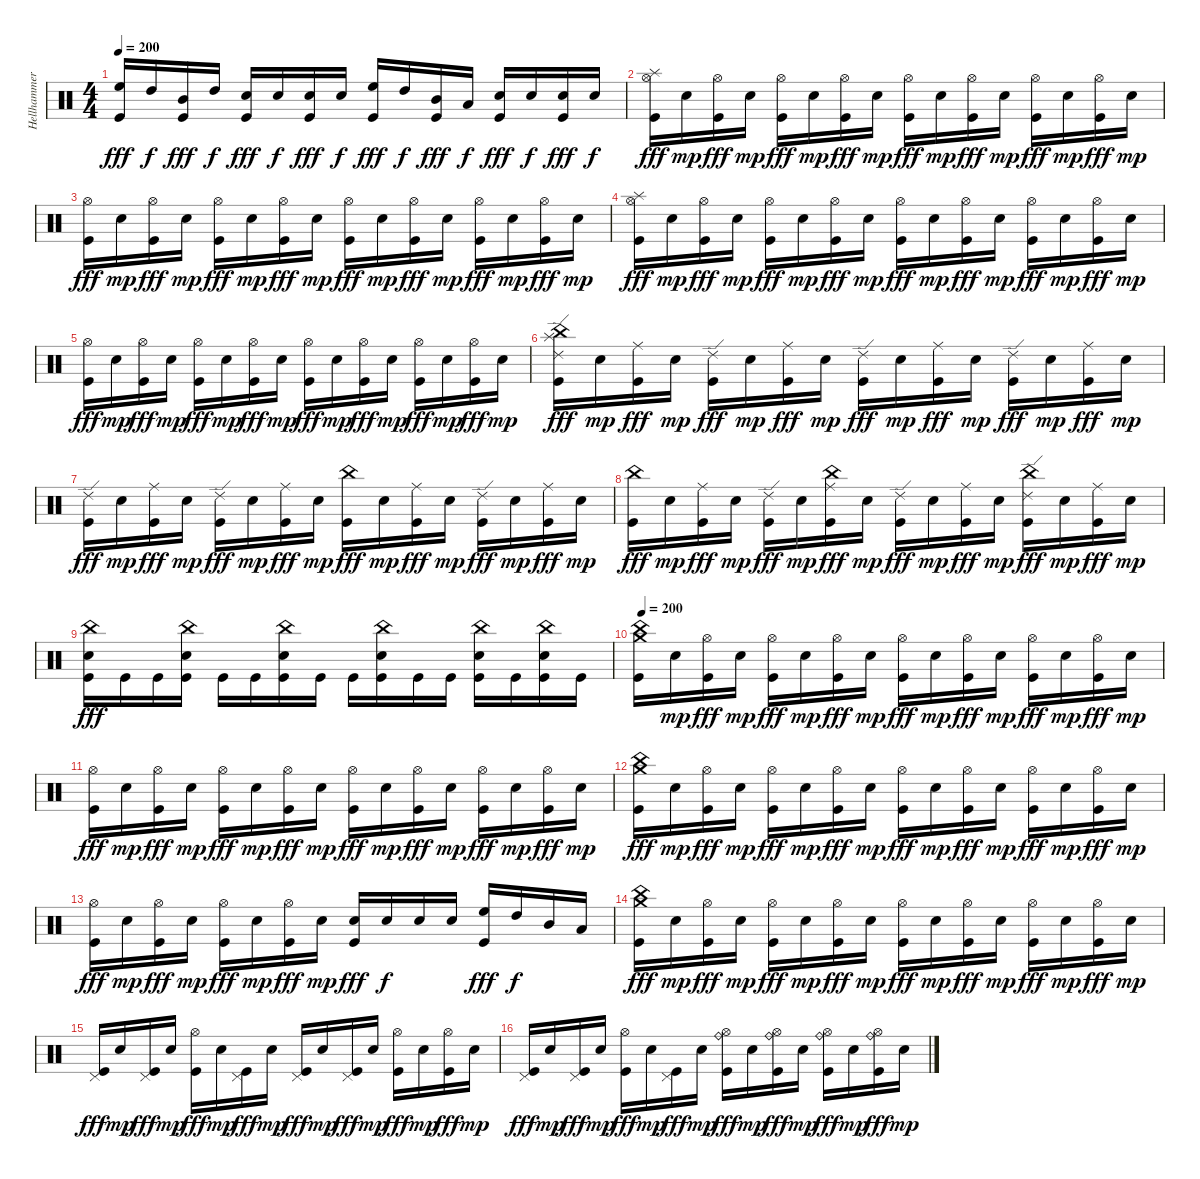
\track ("Hellhammer" "Hellhammer") {instrument percussion}
\staff {score}
\articulation defaults
\ts (4 4)
\tempo 200
\clef neutral
\ks c
("Kick (hit)" "High Floor Tom (hit)").16{dy fff} "High Tom (hit)".16{dy f} ("Kick (hit)" "Mid Tom (hit)").16{dy fff} "High Tom (hit)".16{dy f} ("Kick (hit)" "Electric Snare (hit)").16{dy fff} "Electric Snare (hit)".16{dy f} ("Kick (hit)" "Electric Snare (hit)").16{dy fff} "Electric Snare (hit)".16{dy f} ("Kick (hit)" "High Floor Tom (hit)").16{dy fff} "High Tom (hit)".16{dy f} ("Kick (hit)" "Mid Tom (hit)").16{dy fff} "Low Tom (hit)".16{dy f} ("Kick (hit)" "Electric Snare (hit)").16{dy fff} "Electric Snare (hit)".16{dy f} ("Kick (hit)" "Electric Snare (hit)").16{dy fff} "Electric Snare (hit)".16{dy f} |
("Splash (hit)" "Hi-Hat (open)" "Kick (hit)").16{dy fff} "Electric Snare (hit)".16{dy mp} ("Hi-Hat (open)" "Kick (hit)").16{dy fff} "Electric Snare (hit)".16{dy mp} ("Hi-Hat (open)" "Kick (hit)").16{dy fff} "Electric Snare (hit)".16{dy mp} ("Hi-Hat (open)" "Kick (hit)").16{dy fff} "Electric Snare (hit)".16{dy mp} ("Hi-Hat (open)" "Kick (hit)").16{dy fff} "Electric Snare (hit)".16{dy mp} ("Hi-Hat (open)" "Kick (hit)").16{dy fff} "Electric Snare (hit)".16{dy mp} ("Hi-Hat (open)" "Kick (hit)").16{dy fff} "Electric Snare (hit)".16{dy mp} ("Hi-Hat (open)" "Kick (hit)").16{dy fff} "Electric Snare (hit)".16{dy mp} |
("Hi-Hat (open)" "Kick (hit)").16{dy fff} "Electric Snare (hit)".16{dy mp} ("Hi-Hat (open)" "Kick (hit)").16{dy fff} "Electric Snare (hit)".16{dy mp} ("Hi-Hat (open)" "Kick (hit)").16{dy fff} "Electric Snare (hit)".16{dy mp} ("Hi-Hat (open)" "Kick (hit)").16{dy fff} "Electric Snare (hit)".16{dy mp} ("Hi-Hat (open)" "Kick (hit)").16{dy fff} "Electric Snare (hit)".16{dy mp} ("Hi-Hat (open)" "Kick (hit)").16{dy fff} "Electric Snare (hit)".16{dy mp} ("Hi-Hat (open)" "Kick (hit)").16{dy fff} "Electric Snare (hit)".16{dy mp} ("Hi-Hat (open)" "Kick (hit)").16{dy fff} "Electric Snare (hit)".16{dy mp} |
("Splash (hit)" "Hi-Hat (open)" "Kick (hit)").16{dy fff} "Electric Snare (hit)".16{dy mp} ("Hi-Hat (open)" "Kick (hit)").16{dy fff} "Electric Snare (hit)".16{dy mp} ("Hi-Hat (open)" "Kick (hit)").16{dy fff} "Electric Snare (hit)".16{dy mp} ("Hi-Hat (open)" "Kick (hit)").16{dy fff} "Electric Snare (hit)".16{dy mp} ("Hi-Hat (open)" "Kick (hit)").16{dy fff} "Electric Snare (hit)".16{dy mp} ("Hi-Hat (open)" "Kick (hit)").16{dy fff} "Electric Snare (hit)".16{dy mp} ("Hi-Hat (open)" "Kick (hit)").16{dy fff} "Electric Snare (hit)".16{dy mp} ("Hi-Hat (open)" "Kick (hit)").16{dy fff} "Electric Snare (hit)".16{dy mp} |
("Hi-Hat (open)" "Kick (hit)").16{dy fff} "Electric Snare (hit)".16{dy mp} ("Hi-Hat (open)" "Kick (hit)").16{dy fff} "Electric Snare (hit)".16{dy mp} ("Hi-Hat (open)" "Kick (hit)").16{dy fff} "Electric Snare (hit)".16{dy mp} ("Hi-Hat (open)" "Kick (hit)").16{dy fff} "Electric Snare (hit)".16{dy mp} ("Hi-Hat (open)" "Kick (hit)").16{dy fff} "Electric Snare (hit)".16{dy mp} ("Hi-Hat (open)" "Kick (hit)").16{dy fff} "Electric Snare (hit)".16{dy mp} ("Hi-Hat (open)" "Kick (hit)").16{dy fff} "Electric Snare (hit)".16{dy mp} ("Hi-Hat (open)" "Kick (hit)").16{dy fff} "Electric Snare (hit)".16{dy mp} |
("Splash (hit)" "China (hit)" "Ride (edge) 2" "Kick (hit)").16{dy fff} "Electric Snare (hit)".16{dy mp} ("Ride (middle)" "Kick (hit)").16{dy fff} "Electric Snare (hit)".16{dy mp} ("Ride (edge) 2" "Kick (hit)").16{dy fff} "Electric Snare (hit)".16{dy mp} ("Ride (middle)" "Kick (hit)").16{dy fff} "Electric Snare (hit)".16{dy mp} ("Ride (edge) 2" "Kick (hit)").16{dy fff} "Electric Snare (hit)".16{dy mp} ("Ride (middle)" "Kick (hit)").16{dy fff} "Electric Snare (hit)".16{dy mp} ("Ride (edge) 2" "Kick (hit)").16{dy fff} "Electric Snare (hit)".16{dy mp} ("Ride (middle)" "Kick (hit)").16{dy fff} "Electric Snare (hit)".16{dy mp} |
("Ride (edge) 2" "Kick (hit)").16{dy fff} "Electric Snare (hit)".16{dy mp} ("Ride (middle)" "Kick (hit)").16{dy fff} "Electric Snare (hit)".16{dy mp} ("Ride (edge) 2" "Kick (hit)").16{dy fff} "Electric Snare (hit)".16{dy mp} ("Ride (middle)" "Kick (hit)").16{dy fff} "Electric Snare (hit)".16{dy mp} ("China (hit)" "Kick (hit)").16{dy fff} "Electric Snare (hit)".16{dy mp} ("Ride (middle)" "Kick (hit)").16{dy fff} "Electric Snare (hit)".16{dy mp} ("Ride (edge) 2" "Kick (hit)").16{dy fff} "Electric Snare (hit)".16{dy mp} ("Ride (middle)" "Kick (hit)").16{dy fff} "Electric Snare (hit)".16{dy mp} |
("China (hit)" "Kick (hit)").16{dy fff} "Electric Snare (hit)".16{dy mp} ("Ride (middle)" "Kick (hit)").16{dy fff} "Electric Snare (hit)".16{dy mp} ("Ride (edge) 2" "Kick (hit)").16{dy fff} "Electric Snare (hit)".16{dy mp} ("China (hit)" "Ride (middle)" "Kick (hit)").16{dy fff} "Electric Snare (hit)".16{dy mp} ("Ride (edge) 2" "Kick (hit)").16{dy fff} "Electric Snare (hit)".16{dy mp} ("Ride (middle)" "Kick (hit)").16{dy fff} "Electric Snare (hit)".16{dy mp} ("China (hit)" "Ride (edge) 2" "Kick (hit)").16{dy fff} "Electric Snare (hit)".16{dy mp} ("Ride (middle)" "Kick (hit)").16{dy fff} "Electric Snare (hit)".16{dy mp} |
("China (hit)" "Electric Snare (hit)" "Kick (hit)").16{dy fff} "Kick (hit)".16 "Kick (hit)".16 ("China (hit)" "Electric Snare (hit)" "Kick (hit)").16 "Kick (hit)".16 "Kick (hit)".16 ("China (hit)" "Electric Snare (hit)" "Kick (hit)").16 "Kick (hit)".16 "Kick (hit)".16 ("China (hit)" "Electric Snare (hit)" "Kick (hit)").16 "Kick (hit)".16 "Kick (hit)".16 ("China (hit)" "Electric Snare (hit)" "Kick (hit)").16 "Kick (hit)".16 ("China (hit)" "Electric Snare (hit)" "Kick (hit)").16 "Kick (hit)".16 |
\tempo 200
("China (hit)" "Crash medium (hit)" "Kick (hit)").16 "Electric Snare (hit)".16{dy mp} ("Hi-Hat (open)" "Kick (hit)").16{dy fff} "Electric Snare (hit)".16{dy mp} ("Hi-Hat (open)" "Kick (hit)").16{dy fff} "Electric Snare (hit)".16{dy mp} ("Hi-Hat (open)" "Kick (hit)").16{dy fff} "Electric Snare (hit)".16{dy mp} ("Hi-Hat (open)" "Kick (hit)").16{dy fff} "Electric Snare (hit)".16{dy mp} ("Hi-Hat (open)" "Kick (hit)").16{dy fff} "Electric Snare (hit)".16{dy mp} ("Hi-Hat (open)" "Kick (hit)").16{dy fff} "Electric Snare (hit)".16{dy mp} ("Hi-Hat (open)" "Kick (hit)").16{dy fff} "Electric Snare (hit)".16{dy mp} |
("Hi-Hat (open)" "Kick (hit)").16{dy fff} "Electric Snare (hit)".16{dy mp} ("Hi-Hat (open)" "Kick (hit)").16{dy fff} "Electric Snare (hit)".16{dy mp} ("Hi-Hat (open)" "Kick (hit)").16{dy fff} "Electric Snare (hit)".16{dy mp} ("Hi-Hat (open)" "Kick (hit)").16{dy fff} "Electric Snare (hit)".16{dy mp} ("Hi-Hat (open)" "Kick (hit)").16{dy fff} "Electric Snare (hit)".16{dy mp} ("Hi-Hat (open)" "Kick (hit)").16{dy fff} "Electric Snare (hit)".16{dy mp} ("Hi-Hat (open)" "Kick (hit)").16{dy fff} "Electric Snare (hit)".16{dy mp} ("Hi-Hat (open)" "Kick (hit)").16{dy fff} "Electric Snare (hit)".16{dy mp} |
("China (hit)" "Crash medium (hit)" "Kick (hit)").16{dy fff} "Electric Snare (hit)".16{dy mp} ("Hi-Hat (open)" "Kick (hit)").16{dy fff} "Electric Snare (hit)".16{dy mp} ("Hi-Hat (open)" "Kick (hit)").16{dy fff} "Electric Snare (hit)".16{dy mp} ("Hi-Hat (open)" "Kick (hit)").16{dy fff} "Electric Snare (hit)".16{dy mp} ("Hi-Hat (open)" "Kick (hit)").16{dy fff} "Electric Snare (hit)".16{dy mp} ("Hi-Hat (open)" "Kick (hit)").16{dy fff} "Electric Snare (hit)".16{dy mp} ("Hi-Hat (open)" "Kick (hit)").16{dy fff} "Electric Snare (hit)".16{dy mp} ("Hi-Hat (open)" "Kick (hit)").16{dy fff} "Electric Snare (hit)".16{dy mp} |
("Hi-Hat (open)" "Kick (hit)").16{dy fff} "Electric Snare (hit)".16{dy mp} ("Hi-Hat (open)" "Kick (hit)").16{dy fff} "Electric Snare (hit)".16{dy mp} ("Hi-Hat (open)" "Kick (hit)").16{dy fff} "Electric Snare (hit)".16{dy mp} ("Hi-Hat (open)" "Kick (hit)").16{dy fff} "Electric Snare (hit)".16{dy mp} ("Electric Snare (hit)" "Kick (hit)").16{dy fff} "Electric Snare (hit)".16{dy f} "Electric Snare (hit)".16 "Electric Snare (hit)".16 ("High Floor Tom (hit)" "Kick (hit)").16{dy fff} "High Tom (hit)".16{dy f} "Mid Tom (hit)".16 "Low Tom (hit)".16 |
("China (hit)" "Crash medium (hit)" "Kick (hit)").16{dy fff} "Electric Snare (hit)".16{dy mp} ("Hi-Hat (open)" "Kick (hit)").16{dy fff} "Electric Snare (hit)".16{dy mp} ("Hi-Hat (open)" "Kick (hit)").16{dy fff} "Electric Snare (hit)".16{dy mp} ("Hi-Hat (open)" "Kick (hit)").16{dy fff} "Electric Snare (hit)".16{dy mp} ("Hi-Hat (open)" "Kick (hit)").16{dy fff} "Electric Snare (hit)".16{dy mp} ("Hi-Hat (open)" "Kick (hit)").16{dy fff} "Electric Snare (hit)".16{dy mp} ("Hi-Hat (open)" "Kick (hit)").16{dy fff} "Electric Snare (hit)".16{dy mp} ("Hi-Hat (open)" "Kick (hit)").16{dy fff} "Electric Snare (hit)".16{dy mp} |
("Pedal Hi-Hat (hit)" "Kick (hit)").16{dy fff} "Electric Snare (hit)".16{dy mp} ("Pedal Hi-Hat (hit)" "Kick (hit)").16{dy fff} "Electric Snare (hit)".16{dy mp} ("Hi-Hat (open)" "Kick (hit)").16{dy fff} "Electric Snare (hit)".16{dy mp} ("Pedal Hi-Hat (hit)" "Kick (hit)").16{dy fff} "Electric Snare (hit)".16{dy mp} ("Pedal Hi-Hat (hit)" "Kick (hit)").16{dy fff} "Electric Snare (hit)".16{dy mp} ("Pedal Hi-Hat (hit)" "Kick (hit)").16{dy fff} "Electric Snare (hit)".16{dy mp} ("Hi-Hat (open)" "Kick (hit)").16{dy fff} "Electric Snare (hit)".16{dy mp} ("Hi-Hat (open)" "Kick (hit)").16{dy fff} "Electric Snare (hit)".16{dy mp} |
("Pedal Hi-Hat (hit)" "Kick (hit)").16{dy fff} "Electric Snare (hit)".16{dy mp} ("Pedal Hi-Hat (hit)" "Kick (hit)").16{dy fff} "Electric Snare (hit)".16{dy mp} ("Hi-Hat (open)" "Kick (hit)").16{dy fff} "Electric Snare (hit)".16{dy mp} ("Pedal Hi-Hat (hit)" "Kick (hit)").16{dy fff} "Electric Snare (hit)".16{dy mp} ("Ride (bell)" "Hi-Hat (open)" "Kick (hit)").16{dy fff} "Electric Snare (hit)".16{dy mp} ("Ride (bell)" "Hi-Hat (open)" "Kick (hit)").16{dy fff} "Electric Snare (hit)".16{dy mp} ("Ride (bell)" "Hi-Hat (open)" "Kick (hit)").16{dy fff} "Electric Snare (hit)".16{dy mp} ("Ride (bell)" "Hi-Hat (open)" "Kick (hit)").16{dy fff} "Electric Snare (hit)".16{dy mp}
